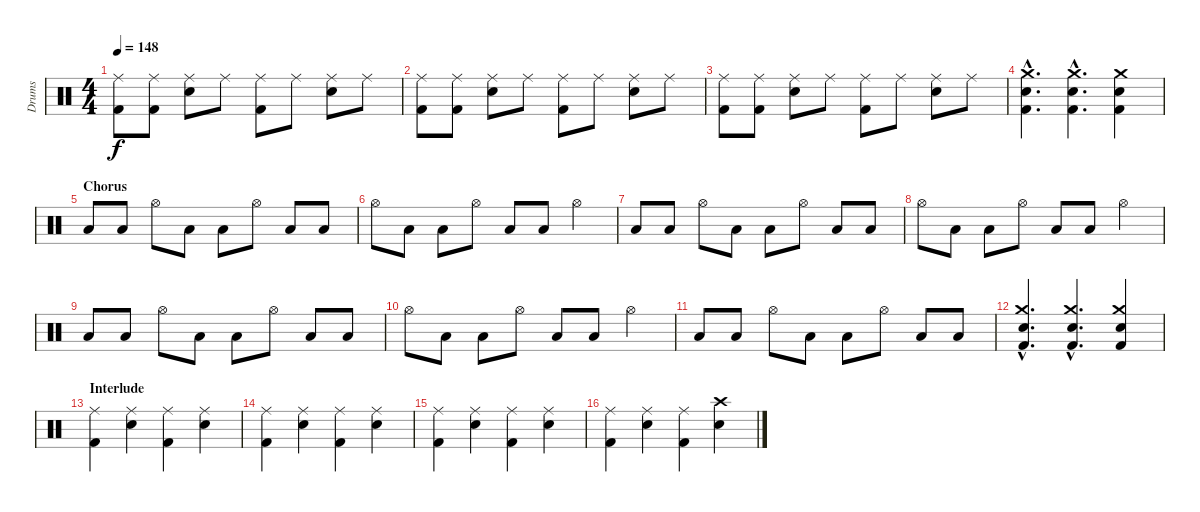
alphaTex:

\track ("Drums" "Drums") {instrument percussion}
\staff {score}
\articulation defaults
\ts (4 4)
\tempo 148
\clef neutral
\ks c
("Ride (middle)" "Kick (hit) 2").8{dy f} ("Ride (middle)" "Kick (hit) 2").8 ("Ride (middle)" "Snare (hit) 2").8 "Ride (middle)".8 ("Ride (middle)" "Kick (hit) 2").8 "Ride (middle)".8 ("Ride (middle)" "Snare (hit) 2").8 "Ride (middle)".8 |
("Ride (middle)" "Kick (hit) 2").8 ("Ride (middle)" "Kick (hit) 2").8 ("Ride (middle)" "Snare (hit) 2").8 "Ride (middle)".8 ("Ride (middle)" "Kick (hit) 2").8 "Ride (middle)".8 ("Ride (middle)" "Snare (hit) 2").8 "Ride (middle)".8 |
("Ride (middle)" "Kick (hit) 2").8 ("Ride (middle)" "Kick (hit) 2").8 ("Ride (middle)" "Snare (hit) 2").8 "Ride (middle)".8 ("Ride (middle)" "Kick (hit) 2").8 "Ride (middle)".8 ("Ride (middle)" "Snare (hit) 2").8 "Ride (middle)".8 |
("Crash medium (hit)"{hac} "Snare (hit) 2"{hac} "Kick (hit) 2"{hac}).4{d} ("Crash medium (hit)"{hac} "Snare (hit) 2"{hac} "Kick (hit) 2"{hac}).4{d} ("Crash medium (hit)" "Snare (hit) 2" "Kick (hit) 2").4 |
\section ("" "Chorus")
"Low Floor Tom (hit)".8 "Low Floor Tom (hit)".8 "Hi-Hat (open)".8 "Low Floor Tom (hit)".8 "Low Floor Tom (hit)".8 "Hi-Hat (open)".8 "Low Floor Tom (hit)".8 "Low Floor Tom (hit)".8 |
"Hi-Hat (open)".8 "Low Floor Tom (hit)".8 "Low Floor Tom (hit)".8 "Hi-Hat (open)".8 "Low Floor Tom (hit)".8 "Low Floor Tom (hit)".8 "Hi-Hat (open)".4 |
"Low Floor Tom (hit)".8 "Low Floor Tom (hit)".8 "Hi-Hat (open)".8 "Low Floor Tom (hit)".8 "Low Floor Tom (hit)".8 "Hi-Hat (open)".8 "Low Floor Tom (hit)".8 "Low Floor Tom (hit)".8 |
"Hi-Hat (open)".8 "Low Floor Tom (hit)".8 "Low Floor Tom (hit)".8 "Hi-Hat (open)".8 "Low Floor Tom (hit)".8 "Low Floor Tom (hit)".8 "Hi-Hat (open)".4 |
"Low Floor Tom (hit)".8 "Low Floor Tom (hit)".8 "Hi-Hat (open)".8 "Low Floor Tom (hit)".8 "Low Floor Tom (hit)".8 "Hi-Hat (open)".8 "Low Floor Tom (hit)".8 "Low Floor Tom (hit)".8 |
"Hi-Hat (open)".8 "Low Floor Tom (hit)".8 "Low Floor Tom (hit)".8 "Hi-Hat (open)".8 "Low Floor Tom (hit)".8 "Low Floor Tom (hit)".8 "Hi-Hat (open)".4 |
"Low Floor Tom (hit)".8 "Low Floor Tom (hit)".8 "Hi-Hat (open)".8 "Low Floor Tom (hit)".8 "Low Floor Tom (hit)".8 "Hi-Hat (open)".8 "Low Floor Tom (hit)".8 "Low Floor Tom (hit)".8 |
("Crash medium (hit)"{hac} "Electric Snare (hit)"{hac} "Kick (hit) 2"{hac}).4{d} ("Crash medium (hit)"{hac} "Electric Snare (hit)"{hac} "Kick (hit) 2"{hac}).4{d} ("Crash medium (hit)" "Electric Snare (hit)" "Kick (hit) 2").4 |
\section ("" "Interlude")
("Ride (middle)" "Kick (hit) 2").4 ("Ride (middle)" "Snare (hit) 2").4 ("Ride (middle)" "Kick (hit) 2").4 ("Ride (middle)" "Snare (hit) 2").4 |
("Ride (middle)" "Kick (hit) 2").4 ("Ride (middle)" "Snare (hit) 2").4 ("Ride (middle)" "Kick (hit) 2").4 ("Ride (middle)" "Snare (hit) 2").4 |
("Ride (middle)" "Kick (hit) 2").4 ("Ride (middle)" "Snare (hit) 2").4 ("Ride (middle)" "Kick (hit) 2").4 ("Ride (middle)" "Snare (hit) 2").4 |
("Ride (middle)" "Kick (hit) 2").4 ("Ride (middle)" "Snare (hit) 2").4 ("Ride (middle)" "Kick (hit) 2").4 ("Crash high (hit)" "Snare (hit) 2").4
